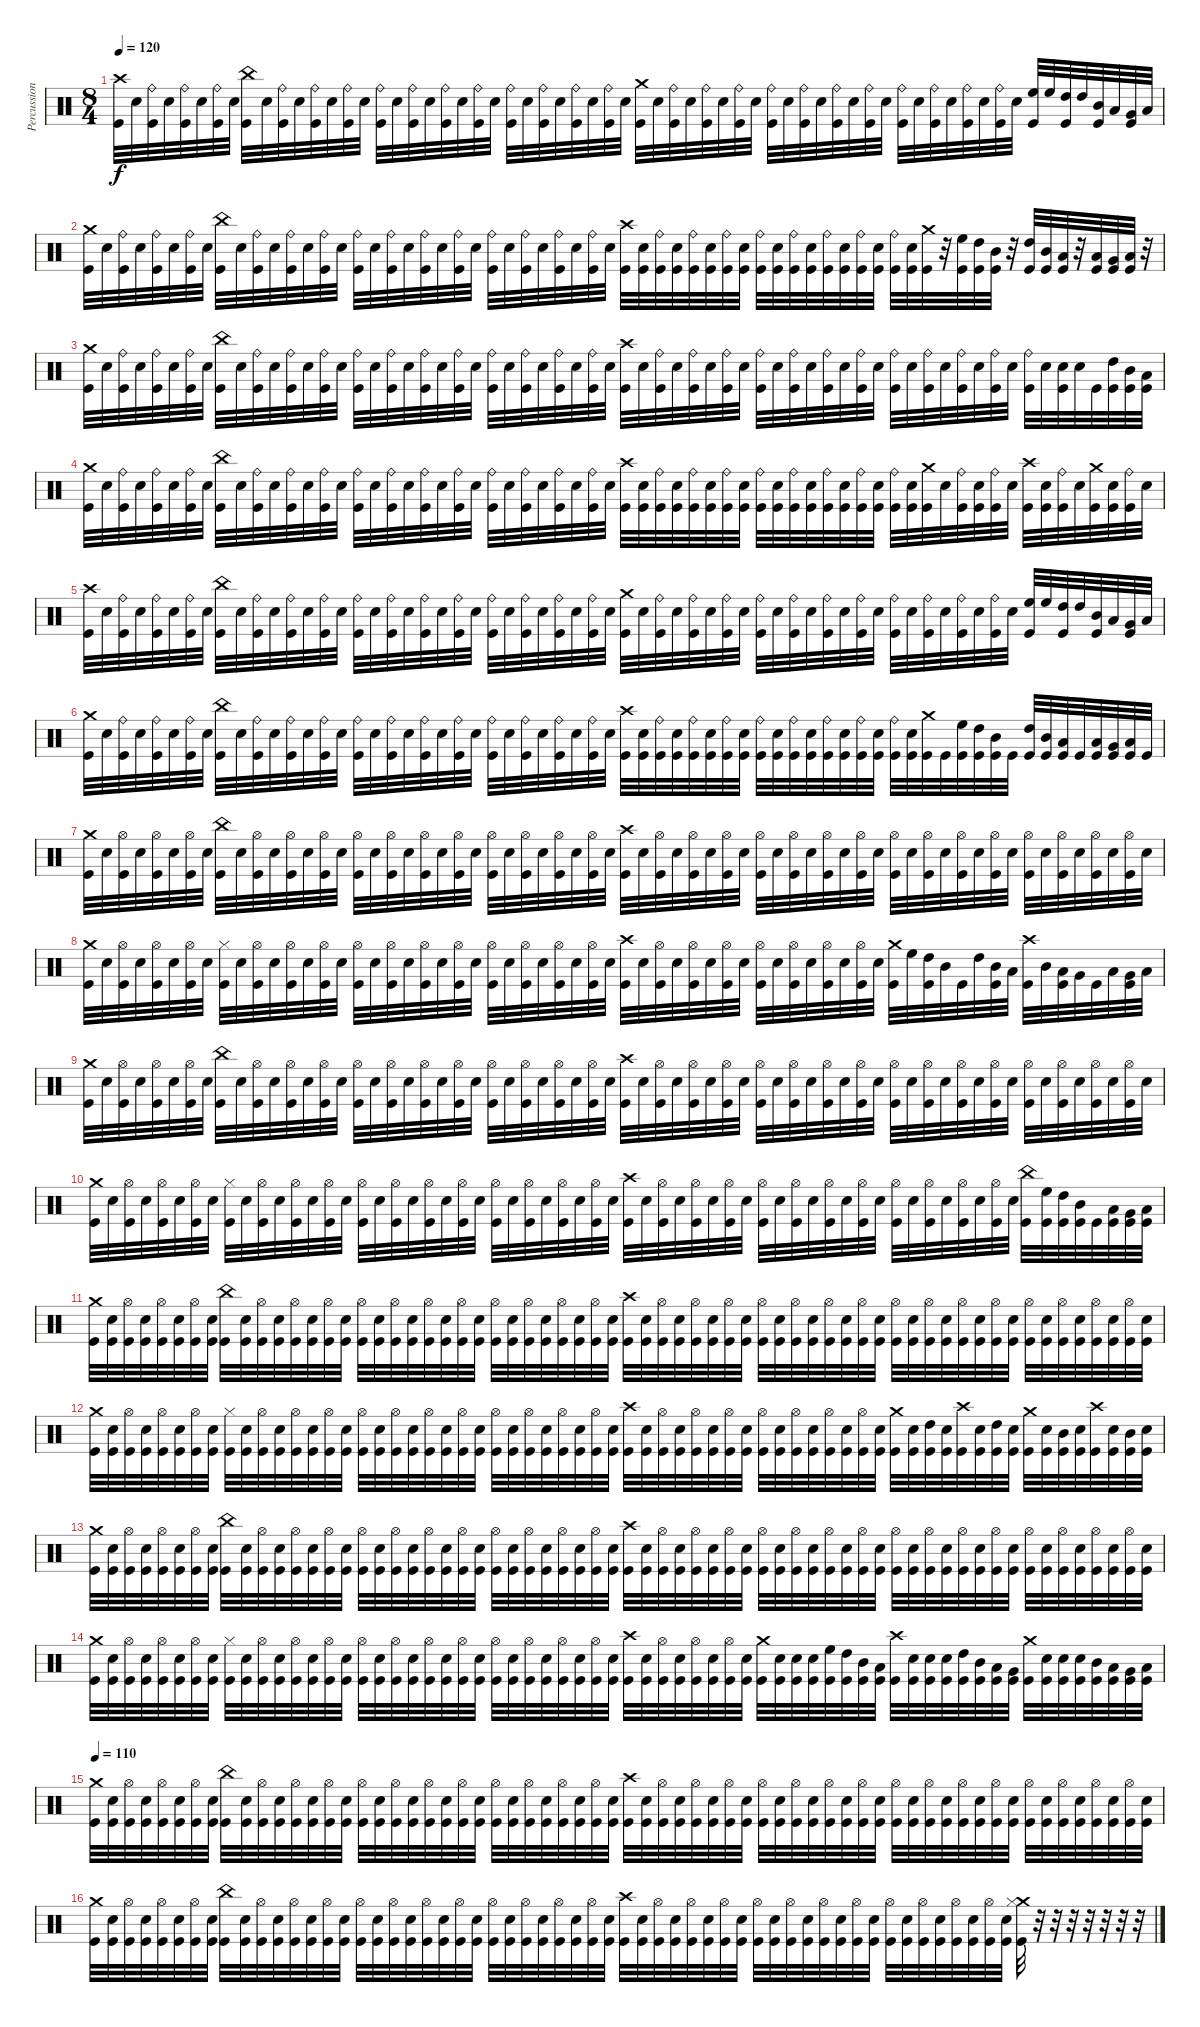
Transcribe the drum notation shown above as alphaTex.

\track ("Percussion" "Percussion") {instrument percussion}
\staff {score}
\articulation defaults
\ts (8 4)
\tempo 120
\clef neutral
\ks c
("Crash high (hit)" "Kick (hit)").32{dy f} "Snare (hit) 2".32 ("Ride (bell)" "Kick (hit)").32 "Snare (hit) 2".32 ("Ride (bell)" "Kick (hit)").32 "Snare (hit) 2".32 ("Ride (bell)" "Kick (hit)").32 "Snare (hit) 2".32 ("China (hit)" "Kick (hit)").32 "Snare (hit) 2".32 ("Ride (bell)" "Kick (hit)").32 "Snare (hit) 2".32 ("Ride (bell)" "Kick (hit)").32 "Snare (hit) 2".32 ("Ride (bell)" "Kick (hit)").32 "Snare (hit) 2".32 ("Ride (bell)" "Kick (hit)").32 "Snare (hit) 2".32 ("Ride (bell)" "Kick (hit)").32 "Snare (hit) 2".32 ("Ride (bell)" "Kick (hit)").32 "Snare (hit) 2".32 ("Ride (bell)" "Kick (hit)").32 "Snare (hit) 2".32 ("Ride (bell)" "Kick (hit)").32 "Snare (hit) 2".32 ("Ride (bell)" "Kick (hit)").32 "Snare (hit) 2".32 ("Ride (bell)" "Kick (hit)").32 "Snare (hit) 2".32 ("Ride (bell)" "Kick (hit)").32 "Snare (hit) 2".32 ("Crash medium (hit)" "Kick (hit)").32 "Snare (hit) 2".32 ("Ride (bell)" "Kick (hit)").32 "Snare (hit) 2".32 ("Ride (bell)" "Kick (hit)").32 "Snare (hit) 2".32 ("Ride (bell)" "Kick (hit)").32 "Snare (hit) 2".32 ("Ride (bell)" "Kick (hit)").32 "Snare (hit) 2".32 ("Ride (bell)" "Kick (hit)").32 "Snare (hit) 2".32 ("Ride (bell)" "Kick (hit)").32 "Snare (hit) 2".32 ("Ride (bell)" "Kick (hit)").32 "Snare (hit) 2".32 ("Ride (bell)" "Kick (hit)").32 "Snare (hit) 2".32 ("Ride (bell)" "Kick (hit)").32 "Snare (hit) 2".32 ("Ride (bell)" "Kick (hit)").32 "Snare (hit) 2".32 ("Ride (bell)" "Kick (hit)").32 "Snare (hit) 2".32 ("High Floor Tom (hit)" "Kick (hit)").32 "High Floor Tom (hit)".32 ("High Tom (hit)" "Kick (hit)").32 "High Tom (hit)".32 ("Mid Tom (hit)" "Kick (hit)").32 "Low Tom (hit)".32 ("Very Low Tom (hit)" "Kick (hit)").32 "Low Floor Tom (hit)".32 |
("Crash medium (hit)" "Kick (hit)").32 "Snare (hit) 2".32 ("Ride (bell)" "Kick (hit)").32 "Snare (hit) 2".32 ("Ride (bell)" "Kick (hit)").32 "Snare (hit) 2".32 ("Ride (bell)" "Kick (hit)").32 "Snare (hit) 2".32 ("China (hit)" "Kick (hit)").32 "Snare (hit) 2".32 ("Ride (bell)" "Kick (hit)").32 "Snare (hit) 2".32 ("Ride (bell)" "Kick (hit)").32 "Snare (hit) 2".32 ("Ride (bell)" "Kick (hit)").32 "Snare (hit) 2".32 ("Ride (bell)" "Kick (hit)").32 "Snare (hit) 2".32 ("Ride (bell)" "Kick (hit)").32 "Snare (hit) 2".32 ("Ride (bell)" "Kick (hit)").32 "Snare (hit) 2".32 ("Ride (bell)" "Kick (hit)").32 "Snare (hit) 2".32 ("Ride (bell)" "Kick (hit)").32 "Snare (hit) 2".32 ("Ride (bell)" "Kick (hit)").32 "Snare (hit) 2".32 ("Ride (bell)" "Kick (hit)").32 "Snare (hit) 2".32 ("Ride (bell)" "Kick (hit)").32 "Snare (hit) 2".32 ("Crash high (hit)" "Kick (hit)").32 ("Snare (hit) 2" "Kick (hit)").32 ("Ride (bell)" "Kick (hit)").32 ("Snare (hit) 2" "Kick (hit)").32 ("Ride (bell)" "Kick (hit)").32 ("Snare (hit) 2" "Kick (hit)").32 ("Ride (bell)" "Kick (hit)").32 ("Snare (hit) 2" "Kick (hit)").32 ("Ride (bell)" "Kick (hit)").32 ("Snare (hit) 2" "Kick (hit)").32 ("Ride (bell)" "Kick (hit)").32 ("Snare (hit) 2" "Kick (hit)").32 ("Ride (bell)" "Kick (hit)").32 ("Snare (hit) 2" "Kick (hit)").32 ("Ride (bell)" "Kick (hit)").32 ("Snare (hit) 2" "Kick (hit)").32 ("Ride (bell)" "Kick (hit)").32 ("Snare (hit) 2" "Kick (hit)").32 ("Crash medium (hit)" "Kick (hit)").32 r.32 ("High Floor Tom (hit)" "Kick (hit)").32 ("High Tom (hit)" "Kick (hit)").32 ("Mid Tom (hit)" "Kick (hit)").32 r.32 ("High Tom (hit)" "Kick (hit)").32 ("Mid Tom (hit)" "Kick (hit)").32 ("Low Tom (hit)" "Kick (hit)").32 r.32 ("Low Tom (hit)" "Kick (hit)").32 ("Very Low Tom (hit)" "Kick (hit)").32 ("Low Floor Tom (hit)" "Kick (hit)").32 r.32 |
("Crash medium (hit)" "Kick (hit)").32 "Snare (hit) 2".32 ("Ride (bell)" "Kick (hit)").32 "Snare (hit) 2".32 ("Ride (bell)" "Kick (hit)").32 "Snare (hit) 2".32 ("Ride (bell)" "Kick (hit)").32 "Snare (hit) 2".32 ("China (hit)" "Kick (hit)").32 "Snare (hit) 2".32 ("Ride (bell)" "Kick (hit)").32 "Snare (hit) 2".32 ("Ride (bell)" "Kick (hit)").32 "Snare (hit) 2".32 ("Ride (bell)" "Kick (hit)").32 "Snare (hit) 2".32 ("Ride (bell)" "Kick (hit)").32 "Snare (hit) 2".32 ("Ride (bell)" "Kick (hit)").32 "Snare (hit) 2".32 ("Ride (bell)" "Kick (hit)").32 "Snare (hit) 2".32 ("Ride (bell)" "Kick (hit)").32 "Snare (hit) 2".32 ("Ride (bell)" "Kick (hit)").32 "Snare (hit) 2".32 ("Ride (bell)" "Kick (hit)").32 "Snare (hit) 2".32 ("Ride (bell)" "Kick (hit)").32 "Snare (hit) 2".32 ("Ride (bell)" "Kick (hit)").32 "Snare (hit) 2".32 ("Crash high (hit)" "Kick (hit)").32 "Snare (hit) 2".32 ("Ride (bell)" "Kick (hit)").32 "Snare (hit) 2".32 ("Ride (bell)" "Kick (hit)").32 "Snare (hit) 2".32 ("Ride (bell)" "Kick (hit)").32 "Snare (hit) 2".32 ("Ride (bell)" "Kick (hit)").32 "Snare (hit) 2".32 ("Ride (bell)" "Kick (hit)").32 "Snare (hit) 2".32 ("Ride (bell)" "Kick (hit)").32 "Snare (hit) 2".32 ("Ride (bell)" "Kick (hit)").32 "Snare (hit) 2".32 ("Ride (bell)" "Kick (hit)").32 "Snare (hit) 2".32 ("Ride (bell)" "Kick (hit)").32 "Snare (hit) 2".32 ("Ride (bell)" "Kick (hit)").32 "Snare (hit) 2".32 ("Ride (bell)" "Kick (hit)").32 "Snare (hit) 2".32 ("Ride (bell)" "Kick (hit)").32 "Snare (hit) 2".32 ("Snare (hit) 2" "Kick (hit)").32 "Snare (hit) 2".32 "Kick (hit)".32 ("High Tom (hit)" "Kick (hit)").32 ("Mid Tom (hit)" "Kick (hit)").32 ("Low Tom (hit)" "Kick (hit)").32 |
("Crash medium (hit)" "Kick (hit)").32 "Snare (hit) 2".32 ("Ride (bell)" "Kick (hit)").32 "Snare (hit) 2".32 ("Ride (bell)" "Kick (hit)").32 "Snare (hit) 2".32 ("Ride (bell)" "Kick (hit)").32 "Snare (hit) 2".32 ("China (hit)" "Kick (hit)").32 "Snare (hit) 2".32 ("Ride (bell)" "Kick (hit)").32 "Snare (hit) 2".32 ("Ride (bell)" "Kick (hit)").32 "Snare (hit) 2".32 ("Ride (bell)" "Kick (hit)").32 "Snare (hit) 2".32 ("Ride (bell)" "Kick (hit)").32 "Snare (hit) 2".32 ("Ride (bell)" "Kick (hit)").32 "Snare (hit) 2".32 ("Ride (bell)" "Kick (hit)").32 "Snare (hit) 2".32 ("Ride (bell)" "Kick (hit)").32 "Snare (hit) 2".32 ("Ride (bell)" "Kick (hit)").32 "Snare (hit) 2".32 ("Ride (bell)" "Kick (hit)").32 "Snare (hit) 2".32 ("Ride (bell)" "Kick (hit)").32 "Snare (hit) 2".32 ("Ride (bell)" "Kick (hit)").32 "Snare (hit) 2".32 ("Crash high (hit)" "Kick (hit)").32 ("Snare (hit) 2" "Kick (hit)").32 ("Ride (bell)" "Kick (hit)").32 ("Snare (hit) 2" "Kick (hit)").32 ("Ride (bell)" "Kick (hit)").32 ("Snare (hit) 2" "Kick (hit)").32 ("Ride (bell)" "Kick (hit)").32 ("Snare (hit) 2" "Kick (hit)").32 ("Ride (bell)" "Kick (hit)").32 ("Snare (hit) 2" "Kick (hit)").32 ("Ride (bell)" "Kick (hit)").32 ("Snare (hit) 2" "Kick (hit)").32 ("Ride (bell)" "Kick (hit)").32 ("Snare (hit) 2" "Kick (hit)").32 ("Ride (bell)" "Kick (hit)").32 ("Snare (hit) 2" "Kick (hit)").32 ("Ride (bell)" "Kick (hit)").32 ("Snare (hit) 2" "Kick (hit)").32 ("Crash medium (hit)" "Kick (hit)").32 "Snare (hit) 2".32 ("Ride (bell)" "Kick (hit)").32 ("Snare (hit) 2" "Kick (hit)").32 ("Ride (bell)" "Kick (hit)").32 "Snare (hit) 2".32 ("Crash high (hit)" "Kick (hit)").32 ("Snare (hit) 2" "Kick (hit)").32 ("Ride (bell)" "Kick (hit)").32 "Snare (hit) 2".32 ("Crash medium (hit)" "Kick (hit)").32 ("Snare (hit) 2" "Kick (hit)").32 ("Ride (bell)" "Kick (hit)").32 "Snare (hit) 2".32 |
("Crash high (hit)" "Kick (hit)").32 "Snare (hit) 2".32 ("Ride (bell)" "Kick (hit)").32 "Snare (hit) 2".32 ("Ride (bell)" "Kick (hit)").32 "Snare (hit) 2".32 ("Ride (bell)" "Kick (hit)").32 "Snare (hit) 2".32 ("China (hit)" "Kick (hit)").32 "Snare (hit) 2".32 ("Ride (bell)" "Kick (hit)").32 "Snare (hit) 2".32 ("Ride (bell)" "Kick (hit)").32 "Snare (hit) 2".32 ("Ride (bell)" "Kick (hit)").32 "Snare (hit) 2".32 ("Ride (bell)" "Kick (hit)").32 "Snare (hit) 2".32 ("Ride (bell)" "Kick (hit)").32 "Snare (hit) 2".32 ("Ride (bell)" "Kick (hit)").32 "Snare (hit) 2".32 ("Ride (bell)" "Kick (hit)").32 "Snare (hit) 2".32 ("Ride (bell)" "Kick (hit)").32 "Snare (hit) 2".32 ("Ride (bell)" "Kick (hit)").32 "Snare (hit) 2".32 ("Ride (bell)" "Kick (hit)").32 "Snare (hit) 2".32 ("Ride (bell)" "Kick (hit)").32 "Snare (hit) 2".32 ("Crash medium (hit)" "Kick (hit)").32 "Snare (hit) 2".32 ("Ride (bell)" "Kick (hit)").32 "Snare (hit) 2".32 ("Ride (bell)" "Kick (hit)").32 "Snare (hit) 2".32 ("Ride (bell)" "Kick (hit)").32 "Snare (hit) 2".32 ("Ride (bell)" "Kick (hit)").32 "Snare (hit) 2".32 ("Ride (bell)" "Kick (hit)").32 "Snare (hit) 2".32 ("Ride (bell)" "Kick (hit)").32 "Snare (hit) 2".32 ("Ride (bell)" "Kick (hit)").32 "Snare (hit) 2".32 ("Ride (bell)" "Kick (hit)").32 "Snare (hit) 2".32 ("Ride (bell)" "Kick (hit)").32 "Snare (hit) 2".32 ("Ride (bell)" "Kick (hit)").32 "Snare (hit) 2".32 ("Ride (bell)" "Kick (hit)").32 "Snare (hit) 2".32 ("High Floor Tom (hit)" "Kick (hit)").32 "High Floor Tom (hit)".32 ("High Tom (hit)" "Kick (hit)").32 "High Tom (hit)".32 ("Mid Tom (hit)" "Kick (hit)").32 "Low Tom (hit)".32 ("Very Low Tom (hit)" "Kick (hit)").32 "Low Floor Tom (hit)".32 |
("Crash medium (hit)" "Kick (hit)").32 "Snare (hit) 2".32 ("Ride (bell)" "Kick (hit)").32 "Snare (hit) 2".32 ("Ride (bell)" "Kick (hit)").32 "Snare (hit) 2".32 ("Ride (bell)" "Kick (hit)").32 "Snare (hit) 2".32 ("China (hit)" "Kick (hit)").32 "Snare (hit) 2".32 ("Ride (bell)" "Kick (hit)").32 "Snare (hit) 2".32 ("Ride (bell)" "Kick (hit)").32 "Snare (hit) 2".32 ("Ride (bell)" "Kick (hit)").32 "Snare (hit) 2".32 ("Ride (bell)" "Kick (hit)").32 "Snare (hit) 2".32 ("Ride (bell)" "Kick (hit)").32 "Snare (hit) 2".32 ("Ride (bell)" "Kick (hit)").32 "Snare (hit) 2".32 ("Ride (bell)" "Kick (hit)").32 "Snare (hit) 2".32 ("Ride (bell)" "Kick (hit)").32 "Snare (hit) 2".32 ("Ride (bell)" "Kick (hit)").32 "Snare (hit) 2".32 ("Ride (bell)" "Kick (hit)").32 "Snare (hit) 2".32 ("Ride (bell)" "Kick (hit)").32 "Snare (hit) 2".32 ("Crash high (hit)" "Kick (hit)").32 ("Snare (hit) 2" "Kick (hit)").32 ("Ride (bell)" "Kick (hit)").32 ("Snare (hit) 2" "Kick (hit)").32 ("Ride (bell)" "Kick (hit)").32 ("Snare (hit) 2" "Kick (hit)").32 ("Ride (bell)" "Kick (hit)").32 ("Snare (hit) 2" "Kick (hit)").32 ("Ride (bell)" "Kick (hit)").32 ("Snare (hit) 2" "Kick (hit)").32 ("Ride (bell)" "Kick (hit)").32 ("Snare (hit) 2" "Kick (hit)").32 ("Ride (bell)" "Kick (hit)").32 ("Snare (hit) 2" "Kick (hit)").32 ("Ride (bell)" "Kick (hit)").32 ("Snare (hit) 2" "Kick (hit)").32 ("Ride (bell)" "Kick (hit)").32 ("Snare (hit) 2" "Kick (hit)").32 ("Crash medium (hit)" "Kick (hit)").32 "Kick (hit)".32 ("High Floor Tom (hit)" "Kick (hit)").32 ("High Tom (hit)" "Kick (hit)").32 ("Mid Tom (hit)" "Kick (hit)").32 "Kick (hit)".32 ("High Tom (hit)" "Kick (hit)").32 ("Mid Tom (hit)" "Kick (hit)").32 ("Low Tom (hit)" "Kick (hit)").32 "Kick (hit)".32 ("Low Tom (hit)" "Kick (hit)").32 ("Very Low Tom (hit)" "Kick (hit)").32 ("Low Floor Tom (hit)" "Kick (hit)").32 "Kick (hit)".32 |
("Crash medium (hit)" "Kick (hit)").32 "Snare (hit) 2".32 ("Hi-Hat (open)" "Kick (hit)").32 "Snare (hit) 2".32 ("Hi-Hat (open)" "Kick (hit)").32 "Snare (hit) 2".32 ("Hi-Hat (open)" "Kick (hit)").32 "Snare (hit) 2".32 ("China (hit)" "Kick (hit)").32 "Snare (hit) 2".32 ("Hi-Hat (open)" "Kick (hit)").32 "Snare (hit) 2".32 ("Hi-Hat (open)" "Kick (hit)").32 "Snare (hit) 2".32 ("Hi-Hat (open)" "Kick (hit)").32 "Snare (hit) 2".32 ("Hi-Hat (open)" "Kick (hit)").32 "Snare (hit) 2".32 ("Hi-Hat (open)" "Kick (hit)").32 "Snare (hit) 2".32 ("Hi-Hat (open)" "Kick (hit)").32 "Snare (hit) 2".32 ("Hi-Hat (open)" "Kick (hit)").32 "Snare (hit) 2".32 ("Hi-Hat (open)" "Kick (hit)").32 "Snare (hit) 2".32 ("Hi-Hat (open)" "Kick (hit)").32 "Snare (hit) 2".32 ("Hi-Hat (open)" "Kick (hit)").32 "Snare (hit) 2".32 ("Hi-Hat (open)" "Kick (hit)").32 "Snare (hit) 2".32 ("Crash high (hit)" "Kick (hit)").32 "Snare (hit) 2".32 ("Hi-Hat (open)" "Kick (hit)").32 "Snare (hit) 2".32 ("Hi-Hat (open)" "Kick (hit)").32 "Snare (hit) 2".32 ("Hi-Hat (open)" "Kick (hit)").32 "Snare (hit) 2".32 ("Hi-Hat (open)" "Kick (hit)").32 "Snare (hit) 2".32 ("Hi-Hat (open)" "Kick (hit)").32 "Snare (hit) 2".32 ("Hi-Hat (open)" "Kick (hit)").32 "Snare (hit) 2".32 ("Hi-Hat (open)" "Kick (hit)").32 "Snare (hit) 2".32 ("Hi-Hat (open)" "Kick (hit)").32 "Snare (hit) 2".32 ("Hi-Hat (open)" "Kick (hit)").32 "Snare (hit) 2".32 ("Hi-Hat (open)" "Kick (hit)").32 "Snare (hit) 2".32 ("Hi-Hat (open)" "Kick (hit)").32 "Snare (hit) 2".32 ("Hi-Hat (open)" "Kick (hit)").32 "Snare (hit) 2".32 ("Hi-Hat (open)" "Kick (hit)").32 "Snare (hit) 2".32 ("Hi-Hat (open)" "Kick (hit)").32 "Snare (hit) 2".32 ("Hi-Hat (open)" "Kick (hit)").32 "Snare (hit) 2".32 |
("Crash medium (hit)" "Kick (hit)").32 "Snare (hit) 2".32 ("Hi-Hat (open)" "Kick (hit)").32 "Snare (hit) 2".32 ("Hi-Hat (open)" "Kick (hit)").32 "Snare (hit) 2".32 ("Hi-Hat (open)" "Kick (hit)").32 "Snare (hit) 2".32 ("Hi-Hat (closed)" "Kick (hit)").32 "Snare (hit) 2".32 ("Hi-Hat (open)" "Kick (hit)").32 "Snare (hit) 2".32 ("Hi-Hat (open)" "Kick (hit)").32 "Snare (hit) 2".32 ("Hi-Hat (open)" "Kick (hit)").32 "Snare (hit) 2".32 ("Hi-Hat (open)" "Kick (hit)").32 "Snare (hit) 2".32 ("Hi-Hat (open)" "Kick (hit)").32 "Snare (hit) 2".32 ("Hi-Hat (open)" "Kick (hit)").32 "Snare (hit) 2".32 ("Hi-Hat (open)" "Kick (hit)").32 "Snare (hit) 2".32 ("Hi-Hat (open)" "Kick (hit)").32 "Snare (hit) 2".32 ("Hi-Hat (open)" "Kick (hit)").32 "Snare (hit) 2".32 ("Hi-Hat (open)" "Kick (hit)").32 "Snare (hit) 2".32 ("Hi-Hat (open)" "Kick (hit)").32 "Snare (hit) 2".32 ("Crash high (hit)" "Kick (hit)").32 "Snare (hit) 2".32 ("Hi-Hat (open)" "Kick (hit)").32 "Snare (hit) 2".32 ("Hi-Hat (open)" "Kick (hit)").32 "Snare (hit) 2".32 ("Hi-Hat (open)" "Kick (hit)").32 "Snare (hit) 2".32 ("Hi-Hat (open)" "Kick (hit)").32 "Snare (hit) 2".32 ("Hi-Hat (open)" "Kick (hit)").32 "Snare (hit) 2".32 ("Hi-Hat (open)" "Kick (hit)").32 "Snare (hit) 2".32 ("Hi-Hat (open)" "Kick (hit)").32 "Snare (hit) 2".32 ("Crash medium (hit)" "Kick (hit)").32 "High Floor Tom (hit)".32 ("High Tom (hit)" "Kick (hit)").32 "Mid Tom (hit)".32 "Kick (hit)".32 "High Tom (hit)".32 ("Mid Tom (hit)" "Kick (hit)").32 "Low Tom (hit)".32 ("Crash high (hit)" "Kick (hit)").32 "Mid Tom (hit)".32 ("Low Tom (hit)" "Kick (hit)").32 "Very Low Tom (hit)".32 "Kick (hit)".32 "Low Tom (hit)".32 ("Very Low Tom (hit)" "Kick (hit)").32 "Low Floor Tom (hit)".32 |
("Crash medium (hit)" "Kick (hit)").32 "Snare (hit) 2".32 ("Hi-Hat (open)" "Kick (hit)").32 "Snare (hit) 2".32 ("Hi-Hat (open)" "Kick (hit)").32 "Snare (hit) 2".32 ("Hi-Hat (open)" "Kick (hit)").32 "Snare (hit) 2".32 ("China (hit)" "Kick (hit)").32 "Snare (hit) 2".32 ("Hi-Hat (open)" "Kick (hit)").32 "Snare (hit) 2".32 ("Hi-Hat (open)" "Kick (hit)").32 "Snare (hit) 2".32 ("Hi-Hat (open)" "Kick (hit)").32 "Snare (hit) 2".32 ("Hi-Hat (open)" "Kick (hit)").32 "Snare (hit) 2".32 ("Hi-Hat (open)" "Kick (hit)").32 "Snare (hit) 2".32 ("Hi-Hat (open)" "Kick (hit)").32 "Snare (hit) 2".32 ("Hi-Hat (open)" "Kick (hit)").32 "Snare (hit) 2".32 ("Hi-Hat (open)" "Kick (hit)").32 "Snare (hit) 2".32 ("Hi-Hat (open)" "Kick (hit)").32 "Snare (hit) 2".32 ("Hi-Hat (open)" "Kick (hit)").32 "Snare (hit) 2".32 ("Hi-Hat (open)" "Kick (hit)").32 "Snare (hit) 2".32 ("Crash high (hit)" "Kick (hit)").32 "Snare (hit) 2".32 ("Hi-Hat (open)" "Kick (hit)").32 "Snare (hit) 2".32 ("Hi-Hat (open)" "Kick (hit)").32 "Snare (hit) 2".32 ("Hi-Hat (open)" "Kick (hit)").32 "Snare (hit) 2".32 ("Hi-Hat (open)" "Kick (hit)").32 "Snare (hit) 2".32 ("Hi-Hat (open)" "Kick (hit)").32 "Snare (hit) 2".32 ("Hi-Hat (open)" "Kick (hit)").32 "Snare (hit) 2".32 ("Hi-Hat (open)" "Kick (hit)").32 "Snare (hit) 2".32 ("Hi-Hat (open)" "Kick (hit)").32 "Snare (hit) 2".32 ("Hi-Hat (open)" "Kick (hit)").32 "Snare (hit) 2".32 ("Hi-Hat (open)" "Kick (hit)").32 "Snare (hit) 2".32 ("Hi-Hat (open)" "Kick (hit)").32 "Snare (hit) 2".32 ("Hi-Hat (open)" "Kick (hit)").32 "Snare (hit) 2".32 ("Hi-Hat (open)" "Kick (hit)").32 "Snare (hit) 2".32 ("Hi-Hat (open)" "Kick (hit)").32 "Snare (hit) 2".32 ("Hi-Hat (open)" "Kick (hit)").32 "Snare (hit) 2".32 |
("Crash medium (hit)" "Kick (hit)").32 "Snare (hit) 2".32 ("Hi-Hat (open)" "Kick (hit)").32 "Snare (hit) 2".32 ("Hi-Hat (open)" "Kick (hit)").32 "Snare (hit) 2".32 ("Hi-Hat (open)" "Kick (hit)").32 "Snare (hit) 2".32 ("Hi-Hat (closed)" "Kick (hit)").32 "Snare (hit) 2".32 ("Hi-Hat (open)" "Kick (hit)").32 "Snare (hit) 2".32 ("Hi-Hat (open)" "Kick (hit)").32 "Snare (hit) 2".32 ("Hi-Hat (open)" "Kick (hit)").32 "Snare (hit) 2".32 ("Hi-Hat (open)" "Kick (hit)").32 "Snare (hit) 2".32 ("Hi-Hat (open)" "Kick (hit)").32 "Snare (hit) 2".32 ("Hi-Hat (open)" "Kick (hit)").32 "Snare (hit) 2".32 ("Hi-Hat (open)" "Kick (hit)").32 "Snare (hit) 2".32 ("Hi-Hat (open)" "Kick (hit)").32 "Snare (hit) 2".32 ("Hi-Hat (open)" "Kick (hit)").32 "Snare (hit) 2".32 ("Hi-Hat (open)" "Kick (hit)").32 "Snare (hit) 2".32 ("Hi-Hat (open)" "Kick (hit)").32 "Snare (hit) 2".32 ("Crash high (hit)" "Kick (hit)").32 "Snare (hit) 2".32 ("Hi-Hat (open)" "Kick (hit)").32 "Snare (hit) 2".32 ("Hi-Hat (open)" "Kick (hit)").32 "Snare (hit) 2".32 ("Hi-Hat (open)" "Kick (hit)").32 "Snare (hit) 2".32 ("Hi-Hat (open)" "Kick (hit)").32 "Snare (hit) 2".32 ("Hi-Hat (open)" "Kick (hit)").32 "Snare (hit) 2".32 ("Hi-Hat (open)" "Kick (hit)").32 "Snare (hit) 2".32 ("Hi-Hat (open)" "Kick (hit)").32 "Snare (hit) 2".32 ("Hi-Hat (open)" "Kick (hit)").32 "Snare (hit) 2".32 ("Hi-Hat (open)" "Kick (hit)").32 "Snare (hit) 2".32 ("Hi-Hat (open)" "Kick (hit)").32 "Snare (hit) 2".32 ("Hi-Hat (open)" "Kick (hit)").32 "Snare (hit) 2".32 ("China (hit)" "Kick (hit)").32 ("High Floor Tom (hit)" "Kick (hit)").32 ("High Tom (hit)" "Kick (hit)").32 ("Mid Tom (hit)" "Kick (hit)").32 "Kick (hit)".32 ("Low Tom (hit)" "Kick (hit)").32 ("Very Low Tom (hit)" "Kick (hit)").32 ("Low Floor Tom (hit)" "Kick (hit)").32 |
("Crash medium (hit)" "Kick (hit)").32 ("Snare (hit) 2" "Kick (hit)").32 ("Hi-Hat (open)" "Kick (hit)").32 ("Snare (hit) 2" "Kick (hit)").32 ("Hi-Hat (open)" "Kick (hit)").32 ("Snare (hit) 2" "Kick (hit)").32 ("Hi-Hat (open)" "Kick (hit)").32 ("Snare (hit) 2" "Kick (hit)").32 ("China (hit)" "Kick (hit)").32 ("Snare (hit) 2" "Kick (hit)").32 ("Hi-Hat (open)" "Kick (hit)").32 ("Snare (hit) 2" "Kick (hit)").32 ("Hi-Hat (open)" "Kick (hit)").32 ("Snare (hit) 2" "Kick (hit)").32 ("Hi-Hat (open)" "Kick (hit)").32 ("Snare (hit) 2" "Kick (hit)").32 ("Hi-Hat (open)" "Kick (hit)").32 ("Snare (hit) 2" "Kick (hit)").32 ("Hi-Hat (open)" "Kick (hit)").32 ("Snare (hit) 2" "Kick (hit)").32 ("Hi-Hat (open)" "Kick (hit)").32 ("Snare (hit) 2" "Kick (hit)").32 ("Hi-Hat (open)" "Kick (hit)").32 ("Snare (hit) 2" "Kick (hit)").32 ("Hi-Hat (open)" "Kick (hit)").32 ("Snare (hit) 2" "Kick (hit)").32 ("Hi-Hat (open)" "Kick (hit)").32 ("Snare (hit) 2" "Kick (hit)").32 ("Hi-Hat (open)" "Kick (hit)").32 ("Snare (hit) 2" "Kick (hit)").32 ("Hi-Hat (open)" "Kick (hit)").32 ("Snare (hit) 2" "Kick (hit)").32 ("Crash high (hit)" "Kick (hit)").32 ("Snare (hit) 2" "Kick (hit)").32 ("Hi-Hat (open)" "Kick (hit)").32 ("Snare (hit) 2" "Kick (hit)").32 ("Hi-Hat (open)" "Kick (hit)").32 ("Snare (hit) 2" "Kick (hit)").32 ("Hi-Hat (open)" "Kick (hit)").32 ("Snare (hit) 2" "Kick (hit)").32 ("Hi-Hat (open)" "Kick (hit)").32 ("Snare (hit) 2" "Kick (hit)").32 ("Hi-Hat (open)" "Kick (hit)").32 ("Snare (hit) 2" "Kick (hit)").32 ("Hi-Hat (open)" "Kick (hit)").32 ("Snare (hit) 2" "Kick (hit)").32 ("Hi-Hat (open)" "Kick (hit)").32 ("Snare (hit) 2" "Kick (hit)").32 ("Hi-Hat (open)" "Kick (hit)").32 ("Snare (hit) 2" "Kick (hit)").32 ("Hi-Hat (open)" "Kick (hit)").32 ("Snare (hit) 2" "Kick (hit)").32 ("Hi-Hat (open)" "Kick (hit)").32 ("Snare (hit) 2" "Kick (hit)").32 ("Hi-Hat (open)" "Kick (hit)").32 ("Snare (hit) 2" "Kick (hit)").32 ("Hi-Hat (open)" "Kick (hit)").32 ("Snare (hit) 2" "Kick (hit)").32 ("Hi-Hat (open)" "Kick (hit)").32 ("Snare (hit) 2" "Kick (hit)").32 ("Hi-Hat (open)" "Kick (hit)").32 ("Snare (hit) 2" "Kick (hit)").32 ("Hi-Hat (open)" "Kick (hit)").32 ("Snare (hit) 2" "Kick (hit)").32 |
("Crash medium (hit)" "Kick (hit)").32 ("Snare (hit) 2" "Kick (hit)").32 ("Hi-Hat (open)" "Kick (hit)").32 ("Snare (hit) 2" "Kick (hit)").32 ("Hi-Hat (open)" "Kick (hit)").32 ("Snare (hit) 2" "Kick (hit)").32 ("Hi-Hat (open)" "Kick (hit)").32 ("Snare (hit) 2" "Kick (hit)").32 ("Hi-Hat (closed)" "Kick (hit)").32 ("Snare (hit) 2" "Kick (hit)").32 ("Hi-Hat (open)" "Kick (hit)").32 ("Snare (hit) 2" "Kick (hit)").32 ("Hi-Hat (open)" "Kick (hit)").32 ("Snare (hit) 2" "Kick (hit)").32 ("Hi-Hat (open)" "Kick (hit)").32 ("Snare (hit) 2" "Kick (hit)").32 ("Hi-Hat (open)" "Kick (hit)").32 ("Snare (hit) 2" "Kick (hit)").32 ("Hi-Hat (open)" "Kick (hit)").32 ("Snare (hit) 2" "Kick (hit)").32 ("Hi-Hat (open)" "Kick (hit)").32 ("Snare (hit) 2" "Kick (hit)").32 ("Hi-Hat (open)" "Kick (hit)").32 ("Snare (hit) 2" "Kick (hit)").32 ("Hi-Hat (open)" "Kick (hit)").32 ("Snare (hit) 2" "Kick (hit)").32 ("Hi-Hat (open)" "Kick (hit)").32 ("Snare (hit) 2" "Kick (hit)").32 ("Hi-Hat (open)" "Kick (hit)").32 ("Snare (hit) 2" "Kick (hit)").32 ("Hi-Hat (open)" "Kick (hit)").32 ("Snare (hit) 2" "Kick (hit)").32 ("Crash high (hit)" "Kick (hit)").32 ("Snare (hit) 2" "Kick (hit)").32 ("Hi-Hat (open)" "Kick (hit)").32 ("Snare (hit) 2" "Kick (hit)").32 ("Hi-Hat (open)" "Kick (hit)").32 ("Snare (hit) 2" "Kick (hit)").32 ("Hi-Hat (open)" "Kick (hit)").32 ("Snare (hit) 2" "Kick (hit)").32 ("Hi-Hat (open)" "Kick (hit)").32 ("Snare (hit) 2" "Kick (hit)").32 ("Hi-Hat (open)" "Kick (hit)").32 ("Snare (hit) 2" "Kick (hit)").32 ("Hi-Hat (open)" "Kick (hit)").32 ("Snare (hit) 2" "Kick (hit)").32 ("Hi-Hat (open)" "Kick (hit)").32 ("Snare (hit) 2" "Kick (hit)").32 ("Crash medium (hit)" "Kick (hit)").32 ("Snare (hit) 2" "Kick (hit)").32 ("High Tom (hit)" "Kick (hit)").32 ("Snare (hit) 2" "Kick (hit)").32 ("Crash high (hit)" "Kick (hit)").32 ("Snare (hit) 2" "Kick (hit)").32 ("High Tom (hit)" "Kick (hit)").32 ("Snare (hit) 2" "Kick (hit)").32 ("Crash medium (hit)" "Kick (hit)").32 ("Snare (hit) 2" "Kick (hit)").32 ("Mid Tom (hit)" "Kick (hit)").32 ("Snare (hit) 2" "Kick (hit)").32 ("Crash high (hit)" "Kick (hit)").32 ("Snare (hit) 2" "Kick (hit)").32 ("Mid Tom (hit)" "Kick (hit)").32 ("Snare (hit) 2" "Kick (hit)").32 |
("Crash medium (hit)" "Kick (hit)").32 ("Snare (hit) 2" "Kick (hit)").32 ("Hi-Hat (open)" "Kick (hit)").32 ("Snare (hit) 2" "Kick (hit)").32 ("Hi-Hat (open)" "Kick (hit)").32 ("Snare (hit) 2" "Kick (hit)").32 ("Hi-Hat (open)" "Kick (hit)").32 ("Snare (hit) 2" "Kick (hit)").32 ("China (hit)" "Kick (hit)").32 ("Snare (hit) 2" "Kick (hit)").32 ("Hi-Hat (open)" "Kick (hit)").32 ("Snare (hit) 2" "Kick (hit)").32 ("Hi-Hat (open)" "Kick (hit)").32 ("Snare (hit) 2" "Kick (hit)").32 ("Hi-Hat (open)" "Kick (hit)").32 ("Snare (hit) 2" "Kick (hit)").32 ("Hi-Hat (open)" "Kick (hit)").32 ("Snare (hit) 2" "Kick (hit)").32 ("Hi-Hat (open)" "Kick (hit)").32 ("Snare (hit) 2" "Kick (hit)").32 ("Hi-Hat (open)" "Kick (hit)").32 ("Snare (hit) 2" "Kick (hit)").32 ("Hi-Hat (open)" "Kick (hit)").32 ("Snare (hit) 2" "Kick (hit)").32 ("Hi-Hat (open)" "Kick (hit)").32 ("Snare (hit) 2" "Kick (hit)").32 ("Hi-Hat (open)" "Kick (hit)").32 ("Snare (hit) 2" "Kick (hit)").32 ("Hi-Hat (open)" "Kick (hit)").32 ("Snare (hit) 2" "Kick (hit)").32 ("Hi-Hat (open)" "Kick (hit)").32 ("Snare (hit) 2" "Kick (hit)").32 ("Crash high (hit)" "Kick (hit)").32 ("Snare (hit) 2" "Kick (hit)").32 ("Hi-Hat (open)" "Kick (hit)").32 ("Snare (hit) 2" "Kick (hit)").32 ("Hi-Hat (open)" "Kick (hit)").32 ("Snare (hit) 2" "Kick (hit)").32 ("Hi-Hat (open)" "Kick (hit)").32 ("Snare (hit) 2" "Kick (hit)").32 ("Hi-Hat (open)" "Kick (hit)").32 ("Snare (hit) 2" "Kick (hit)").32 ("Hi-Hat (open)" "Kick (hit)").32 ("Snare (hit) 2" "Kick (hit)").32 ("Hi-Hat (open)" "Kick (hit)").32 ("Snare (hit) 2" "Kick (hit)").32 ("Hi-Hat (open)" "Kick (hit)").32 ("Snare (hit) 2" "Kick (hit)").32 ("Hi-Hat (open)" "Kick (hit)").32 ("Snare (hit) 2" "Kick (hit)").32 ("Hi-Hat (open)" "Kick (hit)").32 ("Snare (hit) 2" "Kick (hit)").32 ("Hi-Hat (open)" "Kick (hit)").32 ("Snare (hit) 2" "Kick (hit)").32 ("Hi-Hat (open)" "Kick (hit)").32 ("Snare (hit) 2" "Kick (hit)").32 ("Hi-Hat (open)" "Kick (hit)").32 ("Snare (hit) 2" "Kick (hit)").32 ("Hi-Hat (open)" "Kick (hit)").32 ("Snare (hit) 2" "Kick (hit)").32 ("Hi-Hat (open)" "Kick (hit)").32 ("Snare (hit) 2" "Kick (hit)").32 ("Hi-Hat (open)" "Kick (hit)").32 ("Snare (hit) 2" "Kick (hit)").32 |
("Crash medium (hit)" "Kick (hit)").32 ("Snare (hit) 2" "Kick (hit)").32 ("Hi-Hat (open)" "Kick (hit)").32 ("Snare (hit) 2" "Kick (hit)").32 ("Hi-Hat (open)" "Kick (hit)").32 ("Snare (hit) 2" "Kick (hit)").32 ("Hi-Hat (open)" "Kick (hit)").32 ("Snare (hit) 2" "Kick (hit)").32 ("Hi-Hat (closed)" "Kick (hit)").32 ("Snare (hit) 2" "Kick (hit)").32 ("Hi-Hat (open)" "Kick (hit)").32 ("Snare (hit) 2" "Kick (hit)").32 ("Hi-Hat (open)" "Kick (hit)").32 ("Snare (hit) 2" "Kick (hit)").32 ("Hi-Hat (open)" "Kick (hit)").32 ("Snare (hit) 2" "Kick (hit)").32 ("Hi-Hat (open)" "Kick (hit)").32 ("Snare (hit) 2" "Kick (hit)").32 ("Hi-Hat (open)" "Kick (hit)").32 ("Snare (hit) 2" "Kick (hit)").32 ("Hi-Hat (open)" "Kick (hit)").32 ("Snare (hit) 2" "Kick (hit)").32 ("Hi-Hat (open)" "Kick (hit)").32 ("Snare (hit) 2" "Kick (hit)").32 ("Hi-Hat (open)" "Kick (hit)").32 ("Snare (hit) 2" "Kick (hit)").32 ("Hi-Hat (open)" "Kick (hit)").32 ("Snare (hit) 2" "Kick (hit)").32 ("Hi-Hat (open)" "Kick (hit)").32 ("Snare (hit) 2" "Kick (hit)").32 ("Hi-Hat (open)" "Kick (hit)").32 ("Snare (hit) 2" "Kick (hit)").32 ("Crash high (hit)" "Kick (hit)").32 ("Snare (hit) 2" "Kick (hit)").32 ("Hi-Hat (open)" "Kick (hit)").32 ("Snare (hit) 2" "Kick (hit)").32 ("Hi-Hat (open)" "Kick (hit)").32 ("Snare (hit) 2" "Kick (hit)").32 ("Hi-Hat (open)" "Kick (hit)").32 ("Snare (hit) 2" "Kick (hit)").32 ("Crash medium (hit)" "Kick (hit)").32 ("Snare (hit) 2" "Kick (hit)").32 ("Snare (hit) 2" "Kick (hit)").32 ("Snare (hit) 2" "Kick (hit)").32 ("High Floor Tom (hit)" "Kick (hit)").32 ("High Tom (hit)" "Kick (hit)").32 ("Mid Tom (hit)" "Kick (hit)").32 ("Low Tom (hit)" "Kick (hit)").32 ("Crash high (hit)" "Kick (hit)").32 ("Snare (hit) 2" "Kick (hit)").32 ("Snare (hit) 2" "Kick (hit)").32 ("Snare (hit) 2" "Kick (hit)").32 ("High Tom (hit)" "Kick (hit)").32 ("Mid Tom (hit)" "Kick (hit)").32 ("Low Tom (hit)" "Kick (hit)").32 ("Very Low Tom (hit)" "Kick (hit)").32 ("Crash medium (hit)" "Kick (hit)").32 ("Snare (hit) 2" "Kick (hit)").32 ("Snare (hit) 2" "Kick (hit)").32 ("Snare (hit) 2" "Kick (hit)").32 ("Mid Tom (hit)" "Kick (hit)").32 ("Low Tom (hit)" "Kick (hit)").32 ("Very Low Tom (hit)" "Kick (hit)").32 ("Low Floor Tom (hit)" "Kick (hit)").32 |
\tempo 110
("Crash medium (hit)" "Kick (hit)").32 ("Snare (hit) 2" "Kick (hit)").32 ("Hi-Hat (open)" "Kick (hit)").32 ("Snare (hit) 2" "Kick (hit)").32 ("Hi-Hat (open)" "Kick (hit)").32 ("Snare (hit) 2" "Kick (hit)").32 ("Hi-Hat (open)" "Kick (hit)").32 ("Snare (hit) 2" "Kick (hit)").32 ("China (hit)" "Kick (hit)").32 ("Snare (hit) 2" "Kick (hit)").32 ("Hi-Hat (open)" "Kick (hit)").32 ("Snare (hit) 2" "Kick (hit)").32 ("Hi-Hat (open)" "Kick (hit)").32 ("Snare (hit) 2" "Kick (hit)").32 ("Hi-Hat (open)" "Kick (hit)").32 ("Snare (hit) 2" "Kick (hit)").32 ("Hi-Hat (open)" "Kick (hit)").32 ("Snare (hit) 2" "Kick (hit)").32 ("Hi-Hat (open)" "Kick (hit)").32 ("Snare (hit) 2" "Kick (hit)").32 ("Hi-Hat (open)" "Kick (hit)").32 ("Snare (hit) 2" "Kick (hit)").32 ("Hi-Hat (open)" "Kick (hit)").32 ("Snare (hit) 2" "Kick (hit)").32 ("Hi-Hat (open)" "Kick (hit)").32 ("Snare (hit) 2" "Kick (hit)").32 ("Hi-Hat (open)" "Kick (hit)").32 ("Snare (hit) 2" "Kick (hit)").32 ("Hi-Hat (open)" "Kick (hit)").32 ("Snare (hit) 2" "Kick (hit)").32 ("Hi-Hat (open)" "Kick (hit)").32 ("Snare (hit) 2" "Kick (hit)").32 ("Crash high (hit)" "Kick (hit)").32 ("Snare (hit) 2" "Kick (hit)").32 ("Hi-Hat (open)" "Kick (hit)").32 ("Snare (hit) 2" "Kick (hit)").32 ("Hi-Hat (open)" "Kick (hit)").32 ("Snare (hit) 2" "Kick (hit)").32 ("Hi-Hat (open)" "Kick (hit)").32 ("Snare (hit) 2" "Kick (hit)").32 ("Hi-Hat (open)" "Kick (hit)").32 ("Snare (hit) 2" "Kick (hit)").32 ("Hi-Hat (open)" "Kick (hit)").32 ("Snare (hit) 2" "Kick (hit)").32 ("Hi-Hat (open)" "Kick (hit)").32 ("Snare (hit) 2" "Kick (hit)").32 ("Hi-Hat (open)" "Kick (hit)").32 ("Snare (hit) 2" "Kick (hit)").32 ("Hi-Hat (open)" "Kick (hit)").32 ("Snare (hit) 2" "Kick (hit)").32 ("Hi-Hat (open)" "Kick (hit)").32 ("Snare (hit) 2" "Kick (hit)").32 ("Hi-Hat (open)" "Kick (hit)").32 ("Snare (hit) 2" "Kick (hit)").32 ("Hi-Hat (open)" "Kick (hit)").32 ("Snare (hit) 2" "Kick (hit)").32 ("Hi-Hat (open)" "Kick (hit)").32 ("Snare (hit) 2" "Kick (hit)").32 ("Hi-Hat (open)" "Kick (hit)").32 ("Snare (hit) 2" "Kick (hit)").32 ("Hi-Hat (open)" "Kick (hit)").32 ("Snare (hit) 2" "Kick (hit)").32 ("Hi-Hat (open)" "Kick (hit)").32 ("Snare (hit) 2" "Kick (hit)").32 |
("Crash medium (hit)" "Kick (hit)").32 ("Snare (hit) 2" "Kick (hit)").32 ("Hi-Hat (open)" "Kick (hit)").32 ("Snare (hit) 2" "Kick (hit)").32 ("Hi-Hat (open)" "Kick (hit)").32 ("Snare (hit) 2" "Kick (hit)").32 ("Hi-Hat (open)" "Kick (hit)").32 ("Snare (hit) 2" "Kick (hit)").32 ("China (hit)" "Kick (hit)").32 ("Snare (hit) 2" "Kick (hit)").32 ("Hi-Hat (open)" "Kick (hit)").32 ("Snare (hit) 2" "Kick (hit)").32 ("Hi-Hat (open)" "Kick (hit)").32 ("Snare (hit) 2" "Kick (hit)").32 ("Hi-Hat (open)" "Kick (hit)").32 ("Snare (hit) 2" "Kick (hit)").32 ("Hi-Hat (open)" "Kick (hit)").32 ("Snare (hit) 2" "Kick (hit)").32 ("Hi-Hat (open)" "Kick (hit)").32 ("Snare (hit) 2" "Kick (hit)").32 ("Hi-Hat (open)" "Kick (hit)").32 ("Snare (hit) 2" "Kick (hit)").32 ("Hi-Hat (open)" "Kick (hit)").32 ("Snare (hit) 2" "Kick (hit)").32 ("Hi-Hat (open)" "Kick (hit)").32 ("Snare (hit) 2" "Kick (hit)").32 ("Hi-Hat (open)" "Kick (hit)").32 ("Snare (hit) 2" "Kick (hit)").32 ("Hi-Hat (open)" "Kick (hit)").32 ("Snare (hit) 2" "Kick (hit)").32 ("Hi-Hat (open)" "Kick (hit)").32 ("Snare (hit) 2" "Kick (hit)").32 ("Crash high (hit)" "Kick (hit)").32 ("Snare (hit) 2" "Kick (hit)").32 ("Hi-Hat (open)" "Kick (hit)").32 ("Snare (hit) 2" "Kick (hit)").32 ("Hi-Hat (open)" "Kick (hit)").32 ("Snare (hit) 2" "Kick (hit)").32 ("Hi-Hat (open)" "Kick (hit)").32 ("Snare (hit) 2" "Kick (hit)").32 ("Hi-Hat (open)" "Kick (hit)").32 ("Snare (hit) 2" "Kick (hit)").32 ("Hi-Hat (open)" "Kick (hit)").32 ("Snare (hit) 2" "Kick (hit)").32 ("Hi-Hat (open)" "Kick (hit)").32 ("Snare (hit) 2" "Kick (hit)").32 ("Hi-Hat (open)" "Kick (hit)").32 ("Snare (hit) 2" "Kick (hit)").32 ("Hi-Hat (open)" "Kick (hit)").32 ("Snare (hit) 2" "Kick (hit)").32 ("Hi-Hat (open)" "Kick (hit)").32 ("Snare (hit) 2" "Kick (hit)").32 ("Hi-Hat (open)" "Kick (hit)").32 ("Snare (hit) 2" "Kick (hit)").32 ("Hi-Hat (open)" "Kick (hit)").32 ("Snare (hit) 2" "Kick (hit)").32 ("Crash medium (hit)" "Hi-Hat (closed)" "Kick (hit)").32 r.32 r.32 r.32 r.32 r.32 r.32 r.32
